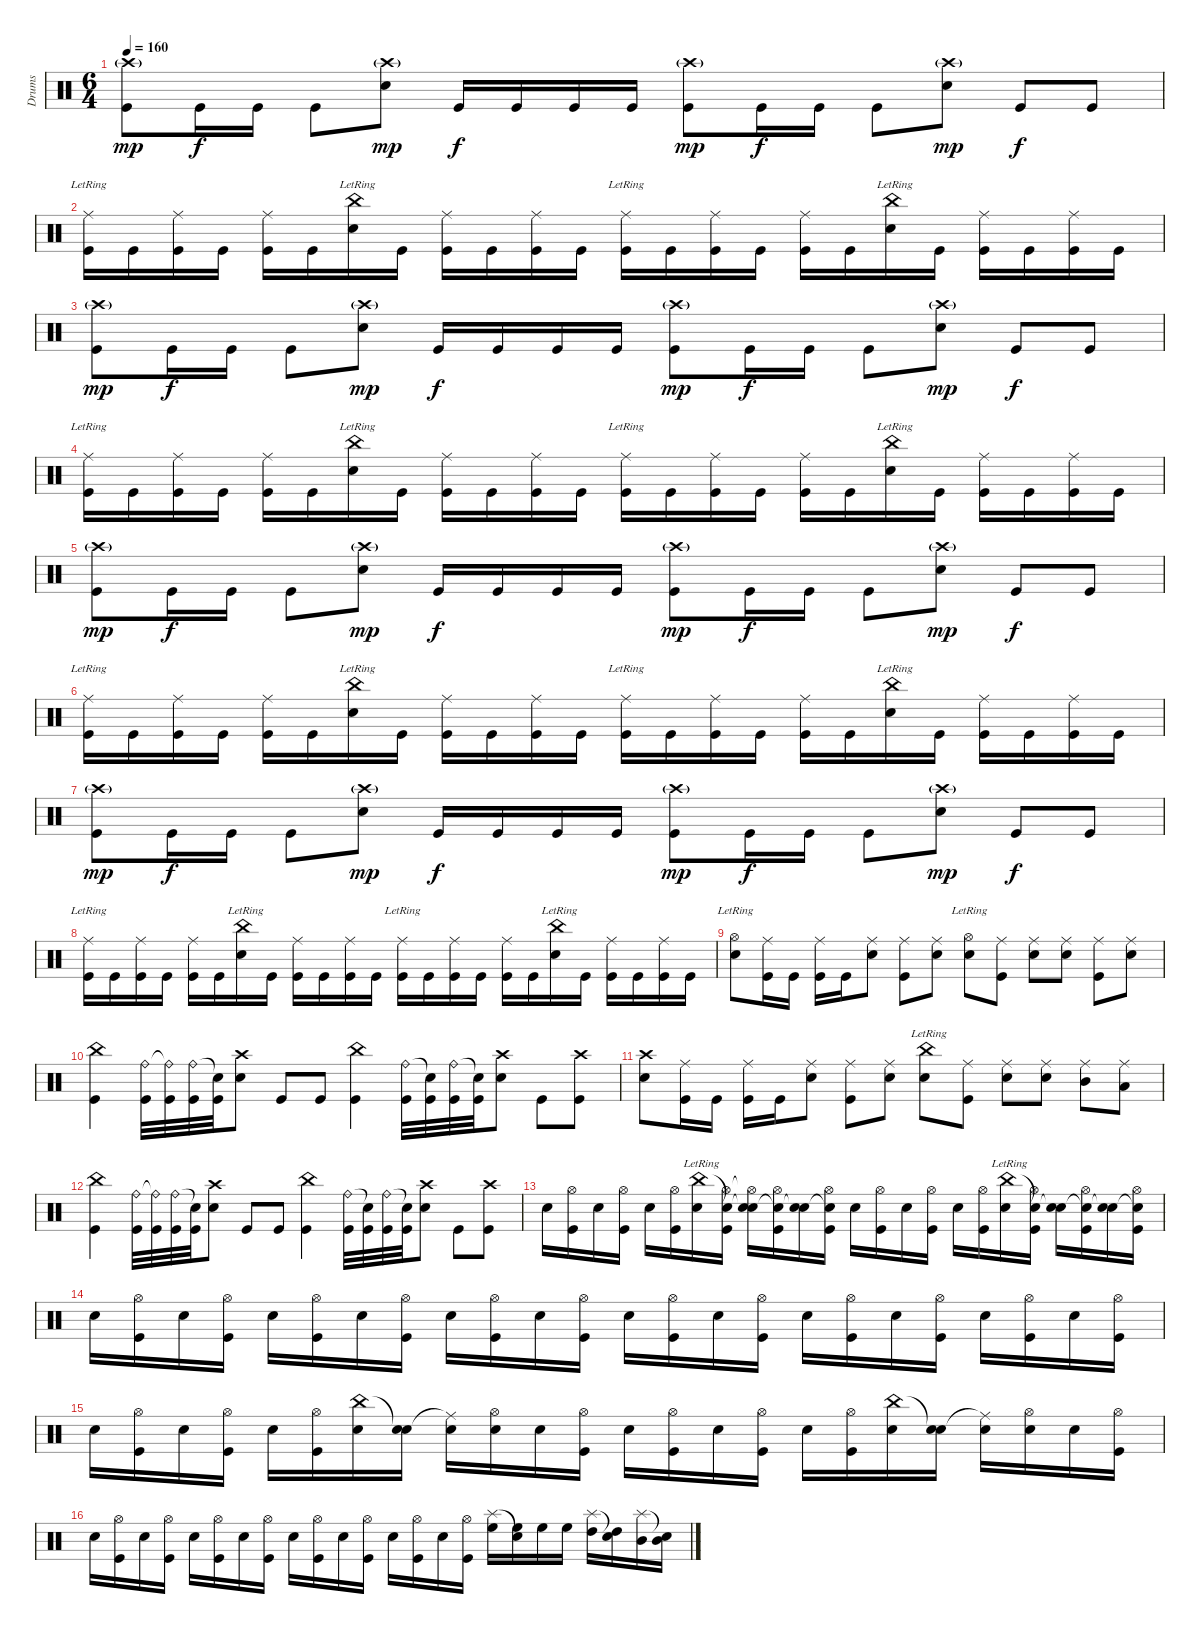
\track ("Drums" "Drums") {instrument percussion}
\staff {score}
\articulation defaults
\ts (6 4)
\tempo 160
\clef neutral
\ks c
("Crash high (hit)"{g} "Kick (hit)").8{dy mp} "Kick (hit)".16{dy f} "Kick (hit)".16 "Kick (hit)".8 ("Crash high (hit)"{g} "Snare (hit) 2").8{dy mp} "Kick (hit)".16{dy f} "Kick (hit)".16 "Kick (hit)".16 "Kick (hit)".16 ("Crash high (hit)"{g} "Kick (hit)").8{dy mp} "Kick (hit)".16{dy f} "Kick (hit)".16 "Kick (hit)".8 ("Crash high (hit)"{g} "Snare (hit) 2").8{dy mp} "Kick (hit)".8{dy f} "Kick (hit)".8 |
("Ride (middle)" "Kick (hit)"{lr}).16 "Kick (hit)".16 ("Ride (middle)" "Kick (hit)").16 "Kick (hit)".16 ("Ride (middle)" "Kick (hit)").16 "Kick (hit)".16 ("China (hit)"{lr} "Snare (hit) 2").16 "Kick (hit)".16 ("Ride (middle)" "Kick (hit)").16 "Kick (hit)".16 ("Ride (middle)" "Kick (hit)").16 "Kick (hit)".16 ("Ride (middle)" "Kick (hit)"{lr}).16 "Kick (hit)".16 ("Ride (middle)" "Kick (hit)").16 "Kick (hit)".16 ("Ride (middle)" "Kick (hit)").16 "Kick (hit)".16 ("China (hit)"{lr} "Snare (hit) 2").16 "Kick (hit)".16 ("Ride (middle)" "Kick (hit)").16 "Kick (hit)".16 ("Ride (middle)" "Kick (hit)").16 "Kick (hit)".16 |
("Crash high (hit)"{g} "Kick (hit)").8{dy mp} "Kick (hit)".16{dy f} "Kick (hit)".16 "Kick (hit)".8 ("Crash high (hit)"{g} "Snare (hit) 2").8{dy mp} "Kick (hit)".16{dy f} "Kick (hit)".16 "Kick (hit)".16 "Kick (hit)".16 ("Crash high (hit)"{g} "Kick (hit)").8{dy mp} "Kick (hit)".16{dy f} "Kick (hit)".16 "Kick (hit)".8 ("Crash high (hit)"{g} "Snare (hit) 2").8{dy mp} "Kick (hit)".8{dy f} "Kick (hit)".8 |
("Ride (middle)" "Kick (hit)"{lr}).16 "Kick (hit)".16 ("Ride (middle)" "Kick (hit)").16 "Kick (hit)".16 ("Ride (middle)" "Kick (hit)").16 "Kick (hit)".16 ("China (hit)"{lr} "Snare (hit) 2").16 "Kick (hit)".16 ("Ride (middle)" "Kick (hit)").16 "Kick (hit)".16 ("Ride (middle)" "Kick (hit)").16 "Kick (hit)".16 ("Ride (middle)" "Kick (hit)"{lr}).16 "Kick (hit)".16 ("Ride (middle)" "Kick (hit)").16 "Kick (hit)".16 ("Ride (middle)" "Kick (hit)").16 "Kick (hit)".16 ("China (hit)"{lr} "Snare (hit) 2").16 "Kick (hit)".16 ("Ride (middle)" "Kick (hit)").16 "Kick (hit)".16 ("Ride (middle)" "Kick (hit)").16 "Kick (hit)".16 |
("Crash high (hit)"{g} "Kick (hit)").8{dy mp} "Kick (hit)".16{dy f} "Kick (hit)".16 "Kick (hit)".8 ("Crash high (hit)"{g} "Snare (hit) 2").8{dy mp} "Kick (hit)".16{dy f} "Kick (hit)".16 "Kick (hit)".16 "Kick (hit)".16 ("Crash high (hit)"{g} "Kick (hit)").8{dy mp} "Kick (hit)".16{dy f} "Kick (hit)".16 "Kick (hit)".8 ("Crash high (hit)"{g} "Snare (hit) 2").8{dy mp} "Kick (hit)".8{dy f} "Kick (hit)".8 |
("Ride (middle)" "Kick (hit)"{lr}).16 "Kick (hit)".16 ("Ride (middle)" "Kick (hit)").16 "Kick (hit)".16 ("Ride (middle)" "Kick (hit)").16 "Kick (hit)".16 ("China (hit)"{lr} "Snare (hit) 2").16 "Kick (hit)".16 ("Ride (middle)" "Kick (hit)").16 "Kick (hit)".16 ("Ride (middle)" "Kick (hit)").16 "Kick (hit)".16 ("Ride (middle)" "Kick (hit)"{lr}).16 "Kick (hit)".16 ("Ride (middle)" "Kick (hit)").16 "Kick (hit)".16 ("Ride (middle)" "Kick (hit)").16 "Kick (hit)".16 ("China (hit)"{lr} "Snare (hit) 2").16 "Kick (hit)".16 ("Ride (middle)" "Kick (hit)").16 "Kick (hit)".16 ("Ride (middle)" "Kick (hit)").16 "Kick (hit)".16 |
("Crash high (hit)"{g} "Kick (hit)").8{dy mp} "Kick (hit)".16{dy f} "Kick (hit)".16 "Kick (hit)".8 ("Crash high (hit)"{g} "Snare (hit) 2").8{dy mp} "Kick (hit)".16{dy f} "Kick (hit)".16 "Kick (hit)".16 "Kick (hit)".16 ("Crash high (hit)"{g} "Kick (hit)").8{dy mp} "Kick (hit)".16{dy f} "Kick (hit)".16 "Kick (hit)".8 ("Crash high (hit)"{g} "Snare (hit) 2").8{dy mp} "Kick (hit)".8{dy f} "Kick (hit)".8 |
("Ride (middle)" "Kick (hit)"{lr}).16 "Kick (hit)".16 ("Ride (middle)" "Kick (hit)").16 "Kick (hit)".16 ("Ride (middle)" "Kick (hit)").16 "Kick (hit)".16 ("China (hit)"{lr} "Snare (hit) 2").16 "Kick (hit)".16 ("Ride (middle)" "Kick (hit)").16 "Kick (hit)".16 ("Ride (middle)" "Kick (hit)").16 "Kick (hit)".16 ("Ride (middle)" "Kick (hit)"{lr}).16 "Kick (hit)".16 ("Ride (middle)" "Kick (hit)").16 "Kick (hit)".16 ("Ride (middle)" "Kick (hit)").16 "Kick (hit)".16 ("China (hit)"{lr} "Snare (hit) 2").16 "Kick (hit)".16 ("Ride (middle)" "Kick (hit)").16 "Kick (hit)".16 ("Ride (middle)" "Kick (hit)").16 "Kick (hit)".16 |
("Hi-Hat (open)"{lr} "Electric Snare (hit)").8 ("Ride (middle)" "Kick (hit)").16 "Kick (hit)".16 ("Ride (middle)" "Kick (hit)").16 "Kick (hit)".16 ("Ride (middle)" "Electric Snare (hit)").8 ("Ride (middle)" "Kick (hit)").8 ("Ride (middle)" "Electric Snare (hit)").8 ("Hi-Hat (open)"{lr} "Electric Snare (hit)").8 ("Ride (middle)" "Kick (hit)").8 ("Ride (middle)" "Electric Snare (hit)").8 ("Ride (middle)" "Electric Snare (hit)").8 ("Ride (middle)" "Kick (hit)").8 ("Ride (middle)" "Electric Snare (hit)").8 |
("China (hit)" "Kick (hit)").4 ("Ride (bell)" "Kick (hit)").32 ("Ride (bell)"{t} "Kick (hit)").32 ("Ride (bell)" "Kick (hit)").32 ("Snare (hit)"{t} "Kick (hit)").32 ("Crash high (hit)" "Electric Snare (hit)").8 "Kick (hit)".8 "Kick (hit)".8 ("China (hit)" "Kick (hit)").4 ("Ride (bell)" "Kick (hit)").32 ("Snare (hit)"{t} "Kick (hit)").32 ("Ride (bell)" "Kick (hit)").32 ("Snare (hit)"{t} "Kick (hit)").32 ("Crash high (hit)" "Electric Snare (hit)").8 "Kick (hit)".8 ("Crash high (hit)" "Kick (hit)").8 |
("Crash high (hit)" "Electric Snare (hit)").8 ("Ride (middle)" "Kick (hit)").16 "Kick (hit)".16 ("Ride (middle)" "Kick (hit)").16 "Kick (hit)".16 ("Ride (middle)" "Electric Snare (hit)").8 ("Ride (middle)" "Kick (hit)").8 ("Ride (middle)" "Electric Snare (hit)").8 ("China (hit)"{lr} "Electric Snare (hit)").8 ("Ride (middle)" "Kick (hit)").8 ("Ride (middle)" "Electric Snare (hit)").8 ("Ride (middle)" "Electric Snare (hit)").8 ("Ride (middle)" "Mid Tom (hit)").8 ("Ride (middle)" "Low Tom (hit)").8 |
("China (hit)" "Kick (hit)").4 ("Ride (bell)" "Kick (hit)").32 ("Ride (bell)"{t} "Kick (hit)").32 ("Ride (bell)" "Kick (hit)").32 ("Snare (hit)"{t} "Kick (hit)").32 ("Crash high (hit)" "Electric Snare (hit)").8 "Kick (hit)".8 "Kick (hit)".8 ("China (hit)" "Kick (hit)").4 ("Ride (bell)" "Kick (hit)").32 ("Snare (hit)"{t} "Kick (hit)").32 ("Ride (bell)" "Kick (hit)").32 ("Snare (hit)"{t} "Kick (hit)").32 ("Crash high (hit)" "Electric Snare (hit)").8 "Kick (hit)".8 ("Crash high (hit)" "Kick (hit)").8 |
"Electric Snare (hit)".16 ("Hi-Hat (open)" "Kick (hit)").16 "Electric Snare (hit)".16 ("Hi-Hat (open)" "Kick (hit)").16 "Electric Snare (hit)".16 ("Hi-Hat (open)" "Kick (hit)").16 ("China (hit)"{lr} "Electric Snare (hit)").16 ("Snare (hit)"{t} "Hi-Hat (open)" "Kick (hit)").16 ("Snare (hit)"{t} "Hi-Hat (open)"{t} "Electric Snare (hit)").16 ("Snare (hit)"{t} "Hi-Hat (open)" "Kick (hit)").16 ("Snare (hit)"{t} "Electric Snare (hit)").16 ("Snare (hit)"{t} "Hi-Hat (open)" "Kick (hit)").16 "Electric Snare (hit)".16 ("Hi-Hat (open)" "Kick (hit)").16 "Electric Snare (hit)".16 ("Hi-Hat (open)" "Kick (hit)").16 "Electric Snare (hit)".16 ("Hi-Hat (open)" "Kick (hit)").16 ("China (hit)"{lr} "Electric Snare (hit)").16 ("Snare (hit)"{t} "Hi-Hat (open)" "Kick (hit)").16 ("Snare (hit)"{t} "Electric Snare (hit)").16 ("Snare (hit)"{t} "Hi-Hat (open)" "Kick (hit)").16 ("Snare (hit)"{t} "Electric Snare (hit)").16 ("Snare (hit)"{t} "Hi-Hat (open)" "Kick (hit)").16 |
"Electric Snare (hit)".16 ("Hi-Hat (open)" "Kick (hit)").16 "Electric Snare (hit)".16 ("Hi-Hat (open)" "Kick (hit)").16 "Electric Snare (hit)".16 ("Hi-Hat (open)" "Kick (hit)").16 "Electric Snare (hit)".16 ("Hi-Hat (open)" "Kick (hit)").16 "Electric Snare (hit)".16 ("Hi-Hat (open)" "Kick (hit)").16 "Electric Snare (hit)".16 ("Hi-Hat (open)" "Kick (hit)").16 "Electric Snare (hit)".16 ("Hi-Hat (open)" "Kick (hit)").16 "Electric Snare (hit)".16 ("Hi-Hat (open)" "Kick (hit)").16 "Electric Snare (hit)".16 ("Hi-Hat (open)" "Kick (hit)").16 "Electric Snare (hit)".16 ("Hi-Hat (open)" "Kick (hit)").16 "Electric Snare (hit)".16 ("Hi-Hat (open)" "Kick (hit)").16 "Electric Snare (hit)".16 ("Hi-Hat (open)" "Kick (hit)").16 |
"Electric Snare (hit)".16 ("Hi-Hat (open)" "Kick (hit)").16 "Electric Snare (hit)".16 ("Hi-Hat (open)" "Kick (hit)").16 "Electric Snare (hit)".16 ("Hi-Hat (open)" "Kick (hit)").16 ("China (hit)" "Electric Snare (hit)").16 ("Snare (hit)"{t} "Electric Snare (hit)").16 ("Ride (middle)"{t} "Electric Snare (hit)").16 ("Hi-Hat (open)" "Electric Snare (hit)").16 "Electric Snare (hit)".16 ("Hi-Hat (open)" "Kick (hit)").16 "Electric Snare (hit)".16 ("Hi-Hat (open)" "Kick (hit)").16 "Electric Snare (hit)".16 ("Hi-Hat (open)" "Kick (hit)").16 "Electric Snare (hit)".16 ("Hi-Hat (open)" "Kick (hit)").16 ("China (hit)" "Electric Snare (hit)").16 ("Snare (hit)"{t} "Electric Snare (hit)").16 ("Ride (middle)"{t} "Electric Snare (hit)").16 ("Hi-Hat (open)" "Electric Snare (hit)").16 "Electric Snare (hit)".16 ("Hi-Hat (open)" "Kick (hit)").16 |
"Electric Snare (hit)".16 ("Hi-Hat (open)" "Kick (hit)").16 "Electric Snare (hit)".16 ("Hi-Hat (open)" "Kick (hit)").16 "Electric Snare (hit)".16 ("Hi-Hat (open)" "Kick (hit)").16 "Electric Snare (hit)".16 ("Hi-Hat (open)" "Kick (hit)").16 "Electric Snare (hit)".16 ("Hi-Hat (open)" "Kick (hit)").16 "Electric Snare (hit)".16 ("Hi-Hat (open)" "Kick (hit)").16 "Electric Snare (hit)".16 ("Hi-Hat (open)" "Kick (hit)").16 "Electric Snare (hit)".16 ("Hi-Hat (open)" "Kick (hit)").16 ("Splash (hit)" "High Floor Tom (hit)").16 ("Snare (hit)"{t} "High Floor Tom (hit)").16 "High Floor Tom (hit)".16 "High Floor Tom (hit)".16 ("Splash (hit)" "High Tom (hit)").16 ("Snare (hit)"{t} "High Tom (hit)").16 ("Splash (hit)" "Mid Tom (hit)").16 ("Snare (hit)"{t} "Mid Tom (hit)").16
